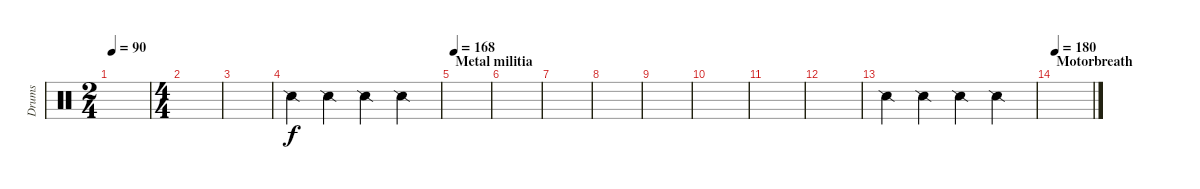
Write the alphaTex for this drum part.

\track ("Drums" "Drums") {instrument percussion}
\staff {score}
\articulation defaults
\ts (2 4)
\tempo 90
\clef neutral
\ks c
|
\ts (4 4)
|
|
"Snare (side stick) 2".4 "Snare (side stick) 2".4 "Snare (side stick) 2".4 "Snare (side stick) 2".4 |
\section ("" "Metal militia")
\tempo 168
|
|
|
|
|
|
|
|
"Snare (side stick) 2".4 "Snare (side stick) 2".4 "Snare (side stick) 2".4 "Snare (side stick) 2".4 |
\section ("" "Motorbreath")
\tempo 180
